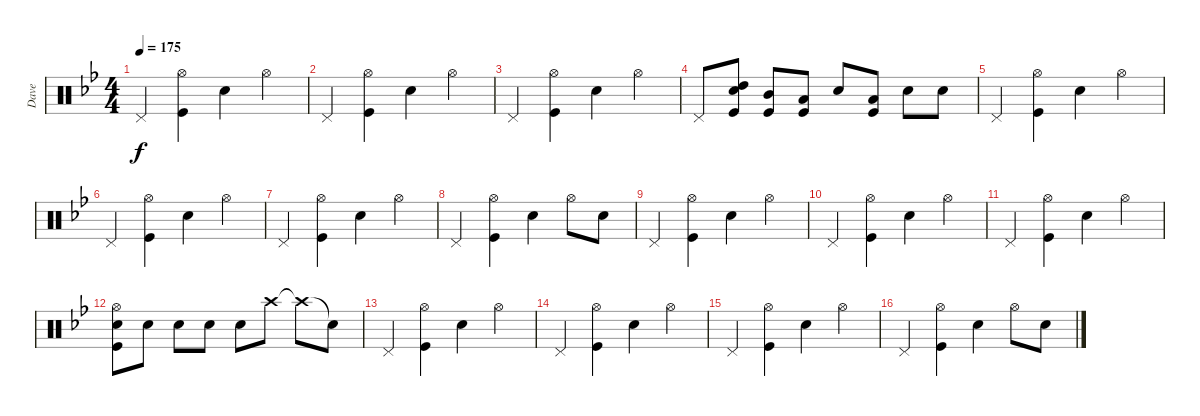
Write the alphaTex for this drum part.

\track ("Dave" "Dave") {instrument percussion}
\staff {score}
\articulation defaults
\ts (4 4)
\tempo 175
\clef neutral
\ks gminor "Pedal Hi-Hat (hit)".4{dy f}
("Hi-Hat (open)" "Kick (hit)").4 "Snare (hit) 2".4 "Hi-Hat (open)".4 |
"Pedal Hi-Hat (hit)".4 ("Hi-Hat (open)" "Kick (hit)").4 "Snare (hit) 2".4 "Hi-Hat (open)".4 |
"Pedal Hi-Hat (hit)".4 ("Hi-Hat (open)" "Kick (hit)").4 "Snare (hit) 2".4 "Hi-Hat (open)".4 |
"Pedal Hi-Hat (hit)".8 ("High Tom (hit)" "Snare (hit) 2" "Kick (hit)").8 ("Mid Tom (hit)" "Kick (hit)").8 ("Low Tom (hit)" "Kick (hit)").8 "Snare (hit) 2".8 ("Low Floor Tom (hit)" "Kick (hit)").8 "Snare (hit) 2".8 "Snare (hit) 2".8 |
"Pedal Hi-Hat (hit)".4 ("Hi-Hat (open)" "Kick (hit)").4 "Snare (hit) 2".4 "Hi-Hat (open)".4 |
"Pedal Hi-Hat (hit)".4 ("Hi-Hat (open)" "Kick (hit)").4 "Snare (hit) 2".4 "Hi-Hat (open)".4 |
"Pedal Hi-Hat (hit)".4 ("Hi-Hat (open)" "Kick (hit)").4 "Snare (hit) 2".4 "Hi-Hat (open)".4 |
"Pedal Hi-Hat (hit)".4 ("Hi-Hat (open)" "Kick (hit)").4 "Snare (hit) 2".4 "Hi-Hat (open)".8 "Snare (hit) 2".8 |
"Pedal Hi-Hat (hit)".4 ("Hi-Hat (open)" "Kick (hit)").4 "Snare (hit) 2".4 "Hi-Hat (open)".4 |
"Pedal Hi-Hat (hit)".4 ("Hi-Hat (open)" "Kick (hit)").4 "Snare (hit) 2".4 "Hi-Hat (open)".4 |
"Pedal Hi-Hat (hit)".4 ("Hi-Hat (open)" "Kick (hit)").4 "Snare (hit) 2".4 "Hi-Hat (open)".4 |
("Hi-Hat (open)" "Snare (hit) 2" "Kick (hit)").8 "Snare (hit) 2".8 "Snare (hit) 2".8 "Snare (hit) 2".8 "Snare (hit) 2".8 "Crash high (hit)".8 "Crash high (hit)"{t}.8 "Snare (hit)"{t}.8 |
"Pedal Hi-Hat (hit)".4 ("Hi-Hat (open)" "Kick (hit)").4 "Snare (hit) 2".4 "Hi-Hat (open)".4 |
"Pedal Hi-Hat (hit)".4 ("Hi-Hat (open)" "Kick (hit)").4 "Snare (hit) 2".4 "Hi-Hat (open)".4 |
"Pedal Hi-Hat (hit)".4 ("Hi-Hat (open)" "Kick (hit)").4 "Snare (hit) 2".4 "Hi-Hat (open)".4 |
"Pedal Hi-Hat (hit)".4 ("Hi-Hat (open)" "Kick (hit)").4 "Snare (hit) 2".4 "Hi-Hat (open)".8 "Snare (hit) 2".8
